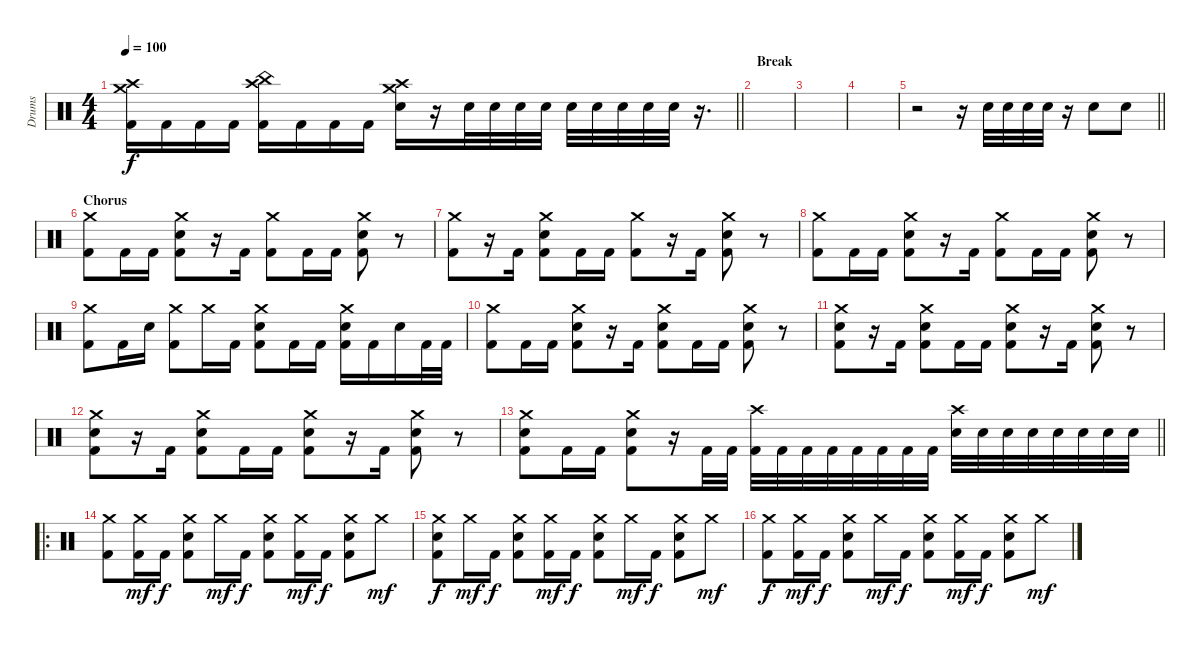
\track ("Drums" "Drums") {instrument percussion}
\staff {score}
\articulation defaults
\ts (4 4)
\tempo 100
\clef neutral
\barLineRight lightlight
\ks c
("Crash medium (hit)" "Crash high (hit)" "Kick (hit) 2").16{dy f} "Kick (hit) 2".16 "Kick (hit) 2".16 "Kick (hit) 2".16 ("China (hit)" "Crash high (hit)" "Kick (hit) 2").16 "Kick (hit) 2".16 "Kick (hit) 2".16 "Kick (hit) 2".16 ("Crash medium (hit)" "Crash high (hit)" "Electric Snare (hit)").16 r.16 "Electric Snare (hit)".32 "Electric Snare (hit)".32 "Electric Snare (hit)".32 "Electric Snare (hit)".32 "Electric Snare (hit)".32 "Electric Snare (hit)".32 "Electric Snare (hit)".32 "Electric Snare (hit)".32 "Electric Snare (hit)".32 r.16{d} |
\section ("" "Break")
|
|
|
\barLineRight lightlight
r.2 r.16 "Electric Snare (hit)".32 "Electric Snare (hit)".32 "Electric Snare (hit)".32 "Electric Snare (hit)".32 r.16 "Electric Snare (hit)".8 "Electric Snare (hit)".8 |
\section ("" "Chorus")
("Crash medium (hit)" "Kick (hit) 2").8 "Kick (hit) 2".16 "Kick (hit) 2".16 ("Crash medium (hit)" "Electric Snare (hit)" "Kick (hit) 2").8 r.16 "Kick (hit) 2".16 ("Crash medium (hit)" "Kick (hit) 2").8 "Kick (hit) 2".16 "Kick (hit) 2".16 ("Crash medium (hit)" "Electric Snare (hit)" "Kick (hit) 2").8 r.8 |
("Crash medium (hit)" "Kick (hit) 2").8 r.16 "Kick (hit) 2".16 ("Crash medium (hit)" "Electric Snare (hit)" "Kick (hit) 2").8 "Kick (hit) 2".16 "Kick (hit) 2".16 ("Crash medium (hit)" "Kick (hit) 2").8 r.16 "Kick (hit) 2".16 ("Crash medium (hit)" "Electric Snare (hit)" "Kick (hit) 2").8 r.8 |
("Crash medium (hit)" "Kick (hit) 2").8 "Kick (hit) 2".16 "Kick (hit) 2".16 ("Crash medium (hit)" "Electric Snare (hit)" "Kick (hit) 2").8 r.16 "Kick (hit) 2".16 ("Crash medium (hit)" "Kick (hit) 2").8 "Kick (hit) 2".16 "Kick (hit) 2".16 ("Crash medium (hit)" "Electric Snare (hit)" "Kick (hit) 2").8 r.8 |
("Crash medium (hit)" "Kick (hit) 2").8 "Kick (hit) 2".16 "Electric Snare (hit)".16 ("Crash medium (hit)" "Kick (hit) 2").8 "Crash medium (hit)".16 "Kick (hit) 2".16 ("Crash medium (hit)" "Electric Snare (hit)" "Kick (hit) 2").8 "Kick (hit) 2".16 "Kick (hit) 2".16 ("Crash medium (hit)" "Electric Snare (hit)" "Kick (hit) 2").16 "Kick (hit) 2".16 "Electric Snare (hit)".16 "Kick (hit) 2".32 "Kick (hit) 2".32 |
("Crash medium (hit)" "Kick (hit) 2").8 "Kick (hit) 2".16 "Kick (hit) 2".16 ("Crash medium (hit)" "Electric Snare (hit)" "Kick (hit) 2").8 r.16 "Kick (hit) 2".16 ("Crash medium (hit)" "Electric Snare (hit)" "Kick (hit) 2").8 "Kick (hit) 2".16 "Kick (hit) 2".16 ("Crash medium (hit)" "Electric Snare (hit)" "Kick (hit) 2").8 r.8 |
("Crash medium (hit)" "Electric Snare (hit)" "Kick (hit) 2").8 r.16 "Kick (hit) 2".16 ("Crash medium (hit)" "Electric Snare (hit)" "Kick (hit) 2").8 "Kick (hit) 2".16 "Kick (hit) 2".16 ("Crash medium (hit)" "Electric Snare (hit)" "Kick (hit) 2").8 r.16 "Kick (hit) 2".16 ("Crash medium (hit)" "Electric Snare (hit)" "Kick (hit) 2").8 r.8 |
("Crash medium (hit)" "Electric Snare (hit)" "Kick (hit) 2").8 r.16 "Kick (hit) 2".16 ("Crash medium (hit)" "Electric Snare (hit)" "Kick (hit) 2").8 "Kick (hit) 2".16 "Kick (hit) 2".16 ("Crash medium (hit)" "Electric Snare (hit)" "Kick (hit) 2").8 r.16 "Kick (hit) 2".16 ("Crash medium (hit)" "Electric Snare (hit)" "Kick (hit) 2").8 r.8 |
\barLineRight lightlight
("Crash medium (hit)" "Electric Snare (hit)" "Kick (hit) 2").8 "Kick (hit) 2".16 "Kick (hit) 2".16 ("Crash medium (hit)" "Electric Snare (hit)" "Kick (hit) 2").8 r.16 "Kick (hit) 2".32 "Kick (hit) 2".32 ("Crash high (hit)" "Kick (hit) 2").32 "Kick (hit) 2".32 "Kick (hit) 2".32 "Kick (hit) 2".32 "Kick (hit) 2".32 "Kick (hit) 2".32 "Kick (hit) 2".32 "Kick (hit) 2".32 ("Crash high (hit)" "Electric Snare (hit)").32 "Electric Snare (hit)".32 "Electric Snare (hit)".32 "Electric Snare (hit)".32 "Electric Snare (hit)".32 "Electric Snare (hit)".32 "Electric Snare (hit)".32 "Electric Snare (hit)".32 |
\ro
("Crash medium (hit)" "Kick (hit) 2").8 ("Crash medium (hit)" "Kick (hit) 2").16{dy mf} "Kick (hit) 2".16{dy f} ("Crash medium (hit)" "Electric Snare (hit)" "Kick (hit) 2").8 "Crash medium (hit)".16{dy mf} "Kick (hit) 2".16{dy f} ("Crash medium (hit)" "Electric Snare (hit)" "Kick (hit) 2").8 ("Crash medium (hit)" "Kick (hit) 2").16{dy mf} "Kick (hit) 2".16{dy f} ("Crash medium (hit)" "Electric Snare (hit)" "Kick (hit) 2").8 "Crash medium (hit)".8{dy mf} |
("Crash medium (hit)" "Electric Snare (hit)" "Kick (hit) 2").8{dy f} "Crash medium (hit)".16{dy mf} "Kick (hit) 2".16{dy f} ("Crash medium (hit)" "Electric Snare (hit)" "Kick (hit) 2").8 ("Crash medium (hit)" "Kick (hit) 2").16{dy mf} "Kick (hit) 2".16{dy f} ("Crash medium (hit)" "Electric Snare (hit)" "Kick (hit) 2").8 "Crash medium (hit)".16{dy mf} "Kick (hit) 2".16{dy f} ("Crash medium (hit)" "Electric Snare (hit)" "Kick (hit) 2").8 "Crash medium (hit)".8{dy mf} |
("Crash medium (hit)" "Kick (hit) 2").8{dy f} ("Crash medium (hit)" "Kick (hit) 2").16{dy mf} "Kick (hit) 2".16{dy f} ("Crash medium (hit)" "Electric Snare (hit)" "Kick (hit) 2").8 "Crash medium (hit)".16{dy mf} "Kick (hit) 2".16{dy f} ("Crash medium (hit)" "Electric Snare (hit)" "Kick (hit) 2").8 ("Crash medium (hit)" "Kick (hit) 2").16{dy mf} "Kick (hit) 2".16{dy f} ("Crash medium (hit)" "Electric Snare (hit)" "Kick (hit) 2").8 "Crash medium (hit)".8{dy mf}
